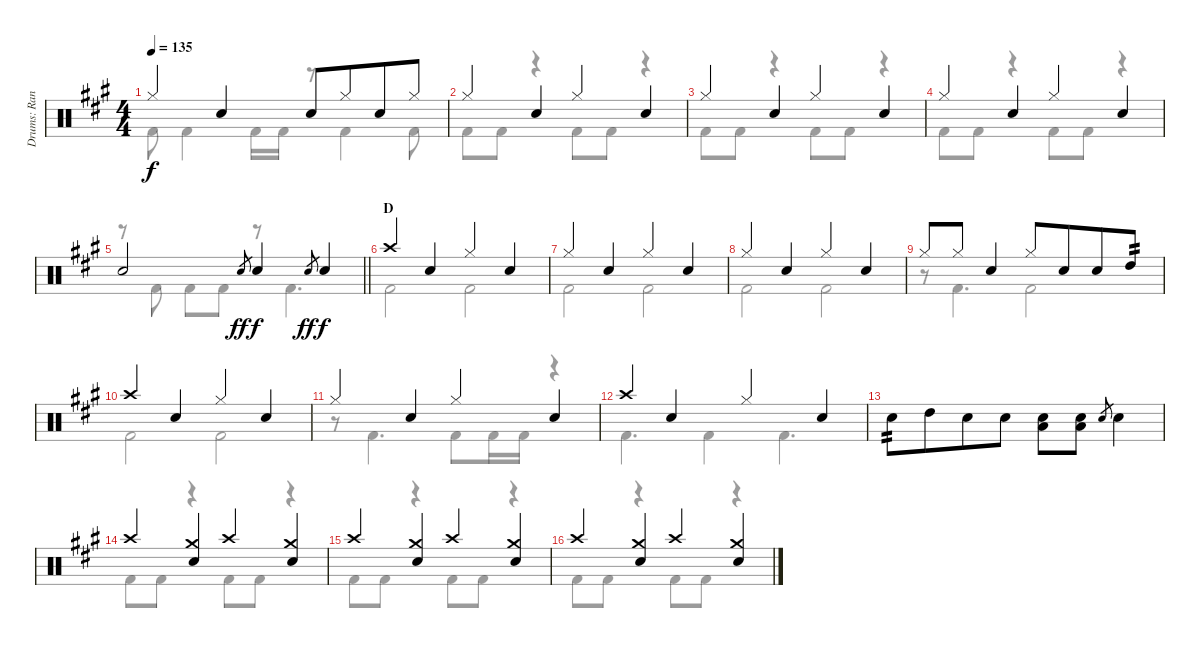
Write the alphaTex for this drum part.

\track ("Drums: Randy" "Drums: Ran") {instrument percussion}
\staff {score}
\articulation defaults
\voice
\ts (4 4)
\tempo 135
\clef neutral
\ks a "Hi-Hat (closed)".4{dy f} "Snare (hit) 2".4 "Snare (hit) 2".8 "Hi-Hat (closed)".8{beam merge} "Snare (hit) 2".8 "Hi-Hat (closed)".8
|
"Hi-Hat (closed)".4 "Snare (hit) 2".4 "Hi-Hat (closed)".4 "Snare (hit) 2".4 |
"Hi-Hat (closed)".4 "Snare (hit) 2".4 "Hi-Hat (closed)".4 "Snare (hit) 2".4 |
"Hi-Hat (closed)".4 "Snare (hit) 2".4 "Hi-Hat (closed)".4 "Snare (hit) 2".4 |
\barLineRight lightlight "Snare (hit) 2".2 "Electric Snare (hit)".8{gr dy ff} "Snare (hit) 2".4{dy f} "Electric Snare (hit)".8{gr dy ff} "Snare (hit) 2".4{dy f}
|
\section ("" "D")
"Crash high (hit)".4 "Snare (hit) 2".4 "Hi-Hat (closed)".4 "Snare (hit) 2".4 |
"Hi-Hat (closed)".4 "Snare (hit) 2".4 "Hi-Hat (closed)".4 "Snare (hit) 2".4 |
"Hi-Hat (closed)".4 "Snare (hit) 2".4 "Hi-Hat (closed)".4 "Snare (hit) 2".4 |
"Hi-Hat (closed)".8 "Hi-Hat (closed)".8 "Snare (hit) 2".4 "Hi-Hat (closed)".8 "Snare (hit) 2".8{beam merge} "Snare (hit) 2".8 "High Tom (hit)".8{tp 2} |
"Crash high (hit)".4 "Snare (hit) 2".4 "Hi-Hat (closed)".4 "Snare (hit) 2".4 |
"Hi-Hat (closed)".4 "Snare (hit) 2".4 "Hi-Hat (closed)".4 "Snare (hit) 2".4 |
"Crash high (hit)".4 "Snare (hit) 2".4 "Hi-Hat (closed)".4 "Snare (hit) 2".4 |
"Snare (hit) 2".8{tp 2} "High Tom (hit)".8{beam merge} "Snare (hit) 2".8 "Snare (hit) 2".8 ("Snare (hit) 2" "Low Tom (hit)").8 ("Snare (hit) 2" "Low Tom (hit)").8 "Electric Snare (hit)".8{gr} "Snare (hit) 2".4 |
"Crash high (hit)".4 ("Crash medium (hit)" "Snare (hit) 2").4 "Crash high (hit)".4 ("Crash medium (hit)" "Snare (hit) 2").4 |
"Crash high (hit)".4 ("Crash medium (hit)" "Snare (hit) 2").4 "Crash high (hit)".4 ("Crash medium (hit)" "Snare (hit) 2").4 |
"Crash high (hit)".4 ("Crash medium (hit)" "Snare (hit) 2").4 "Crash high (hit)".4 ("Crash medium (hit)" "Snare (hit) 2").4
\voice
\clef neutral
\ottava regular
\simile none
\ks a "Kick (hit) 2".8{dy f} "Kick (hit) 2".4 "Kick (hit) 2".16 "Kick (hit) 2".16
r.8 "Kick (hit) 2".4 "Kick (hit) 2".8 |
"Kick (hit) 2".8 "Kick (hit) 2".8 r.4 "Kick (hit) 2".8 "Kick (hit) 2".8 r.4 |
"Kick (hit) 2".8 "Kick (hit) 2".8 r.4 "Kick (hit) 2".8 "Kick (hit) 2".8 r.4 |
"Kick (hit) 2".8 "Kick (hit) 2".8 r.4 "Kick (hit) 2".8 "Kick (hit) 2".8 r.4 |
\barLineRight lightlight
r.8 "Kick (hit) 2".8 "Kick (hit) 2".8 "Kick (hit) 2".8 r.8 "Kick (hit) 2".4{d} |
"Kick (hit) 2".2 "Kick (hit) 2".2 |
"Kick (hit) 2".2 "Kick (hit) 2".2 |
"Kick (hit) 2".2 "Kick (hit) 2".2 |
r.8 "Kick (hit) 2".4{d} "Kick (hit) 2".2 |
"Kick (hit) 2".2 "Kick (hit) 2".2 |
r.8 "Kick (hit) 2".4{d} "Kick (hit) 2".8 "Kick (hit) 2".16 "Kick (hit) 2".16 r.4 |
"Kick (hit) 2".4{d} "Kick (hit) 2".4 "Kick (hit) 2".4{d} |
|
"Kick (hit) 2".8 "Kick (hit) 2".8 r.4 "Kick (hit) 2".8 "Kick (hit) 2".8 r.4 |
"Kick (hit) 2".8 "Kick (hit) 2".8 r.4 "Kick (hit) 2".8 "Kick (hit) 2".8 r.4 |
"Kick (hit) 2".8 "Kick (hit) 2".8 r.4 "Kick (hit) 2".8 "Kick (hit) 2".8 r.4
